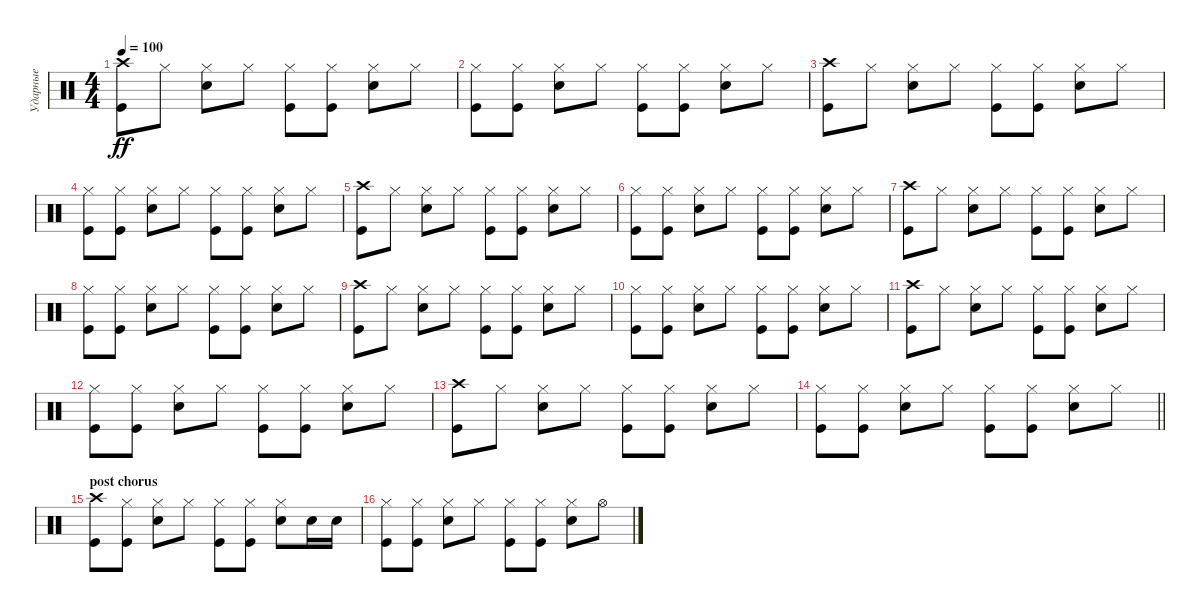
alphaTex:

\track ("Ударные" "Ударные") {instrument percussion}
\staff {score}
\articulation defaults
\ts (4 4)
\tempo 100
\clef neutral
\ks c
("Crash high (hit)" "Kick (hit)").8{dy ff} "Hi-Hat (closed)".8 ("Hi-Hat (closed)" "Electric Snare (hit)").8 "Hi-Hat (closed)".8 ("Hi-Hat (closed)" "Kick (hit)").8 ("Hi-Hat (closed)" "Kick (hit)").8 ("Hi-Hat (closed)" "Electric Snare (hit)").8 "Hi-Hat (closed)".8 |
("Hi-Hat (closed)" "Kick (hit)").8 ("Hi-Hat (closed)" "Kick (hit)").8 ("Hi-Hat (closed)" "Electric Snare (hit)").8 "Hi-Hat (closed)".8 ("Hi-Hat (closed)" "Kick (hit)").8 ("Hi-Hat (closed)" "Kick (hit)").8 ("Hi-Hat (closed)" "Electric Snare (hit)").8 "Hi-Hat (closed)".8 |
("Crash high (hit)" "Kick (hit)").8 "Hi-Hat (closed)".8 ("Hi-Hat (closed)" "Electric Snare (hit)").8 "Hi-Hat (closed)".8 ("Hi-Hat (closed)" "Kick (hit)").8 ("Hi-Hat (closed)" "Kick (hit)").8 ("Hi-Hat (closed)" "Electric Snare (hit)").8 "Hi-Hat (closed)".8 |
("Hi-Hat (closed)" "Kick (hit)").8 ("Hi-Hat (closed)" "Kick (hit)").8 ("Hi-Hat (closed)" "Electric Snare (hit)").8 "Hi-Hat (closed)".8 ("Hi-Hat (closed)" "Kick (hit)").8 ("Hi-Hat (closed)" "Kick (hit)").8 ("Hi-Hat (closed)" "Electric Snare (hit)").8 "Hi-Hat (closed)".8 |
("Crash high (hit)" "Kick (hit)").8 "Hi-Hat (closed)".8 ("Hi-Hat (closed)" "Electric Snare (hit)").8 "Hi-Hat (closed)".8 ("Hi-Hat (closed)" "Kick (hit)").8 ("Hi-Hat (closed)" "Kick (hit)").8 ("Hi-Hat (closed)" "Electric Snare (hit)").8 "Hi-Hat (closed)".8 |
("Hi-Hat (closed)" "Kick (hit)").8 ("Hi-Hat (closed)" "Kick (hit)").8 ("Hi-Hat (closed)" "Electric Snare (hit)").8 "Hi-Hat (closed)".8 ("Hi-Hat (closed)" "Kick (hit)").8 ("Hi-Hat (closed)" "Kick (hit)").8 ("Hi-Hat (closed)" "Electric Snare (hit)").8 "Hi-Hat (closed)".8 |
("Crash high (hit)" "Kick (hit)").8 "Hi-Hat (closed)".8 ("Hi-Hat (closed)" "Electric Snare (hit)").8 "Hi-Hat (closed)".8 ("Hi-Hat (closed)" "Kick (hit)").8 ("Hi-Hat (closed)" "Kick (hit)").8 ("Hi-Hat (closed)" "Electric Snare (hit)").8 "Hi-Hat (closed)".8 |
("Hi-Hat (closed)" "Kick (hit)").8 ("Hi-Hat (closed)" "Kick (hit)").8 ("Hi-Hat (closed)" "Electric Snare (hit)").8 "Hi-Hat (closed)".8 ("Hi-Hat (closed)" "Kick (hit)").8 ("Hi-Hat (closed)" "Kick (hit)").8 ("Hi-Hat (closed)" "Electric Snare (hit)").8 "Hi-Hat (closed)".8 |
("Crash high (hit)" "Kick (hit)").8 "Hi-Hat (closed)".8 ("Hi-Hat (closed)" "Electric Snare (hit)").8 "Hi-Hat (closed)".8 ("Hi-Hat (closed)" "Kick (hit)").8 ("Hi-Hat (closed)" "Kick (hit)").8 ("Hi-Hat (closed)" "Electric Snare (hit)").8 "Hi-Hat (closed)".8 |
("Hi-Hat (closed)" "Kick (hit)").8 ("Hi-Hat (closed)" "Kick (hit)").8 ("Hi-Hat (closed)" "Electric Snare (hit)").8 "Hi-Hat (closed)".8 ("Hi-Hat (closed)" "Kick (hit)").8 ("Hi-Hat (closed)" "Kick (hit)").8 ("Hi-Hat (closed)" "Electric Snare (hit)").8 "Hi-Hat (closed)".8 |
("Crash high (hit)" "Kick (hit)").8 "Hi-Hat (closed)".8 ("Hi-Hat (closed)" "Electric Snare (hit)").8 "Hi-Hat (closed)".8 ("Hi-Hat (closed)" "Kick (hit)").8 ("Hi-Hat (closed)" "Kick (hit)").8 ("Hi-Hat (closed)" "Electric Snare (hit)").8 "Hi-Hat (closed)".8 |
("Hi-Hat (closed)" "Kick (hit)").8 ("Hi-Hat (closed)" "Kick (hit)").8 ("Hi-Hat (closed)" "Electric Snare (hit)").8 "Hi-Hat (closed)".8 ("Hi-Hat (closed)" "Kick (hit)").8 ("Hi-Hat (closed)" "Kick (hit)").8 ("Hi-Hat (closed)" "Electric Snare (hit)").8 "Hi-Hat (closed)".8 |
("Crash high (hit)" "Kick (hit)").8 "Hi-Hat (closed)".8 ("Hi-Hat (closed)" "Electric Snare (hit)").8 "Hi-Hat (closed)".8 ("Hi-Hat (closed)" "Kick (hit)").8 ("Hi-Hat (closed)" "Kick (hit)").8 ("Hi-Hat (closed)" "Electric Snare (hit)").8 "Hi-Hat (closed)".8 |
\barLineRight lightlight
("Hi-Hat (closed)" "Kick (hit)").8 ("Hi-Hat (closed)" "Kick (hit)").8 ("Hi-Hat (closed)" "Electric Snare (hit)").8 "Hi-Hat (closed)".8 ("Hi-Hat (closed)" "Kick (hit)").8 ("Hi-Hat (closed)" "Kick (hit)").8 ("Hi-Hat (closed)" "Electric Snare (hit)").8 "Hi-Hat (closed)".8 |
\section ("" "post chorus")
("Crash high (hit)" "Kick (hit)").8 ("Hi-Hat (closed)" "Kick (hit)").8 ("Hi-Hat (closed)" "Electric Snare (hit)").8 "Hi-Hat (closed)".8 ("Hi-Hat (closed)" "Kick (hit)").8 ("Hi-Hat (closed)" "Kick (hit)").8 ("Hi-Hat (closed)" "Electric Snare (hit)").8 "Electric Snare (hit)".16 "Electric Snare (hit)".16 |
("Hi-Hat (closed)" "Kick (hit)").8 ("Hi-Hat (closed)" "Kick (hit)").8 ("Hi-Hat (closed)" "Electric Snare (hit)").8 "Hi-Hat (closed)".8 ("Hi-Hat (closed)" "Kick (hit)").8 ("Hi-Hat (closed)" "Kick (hit)").8 ("Hi-Hat (closed)" "Electric Snare (hit)").8 "Hi-Hat (open)".8
